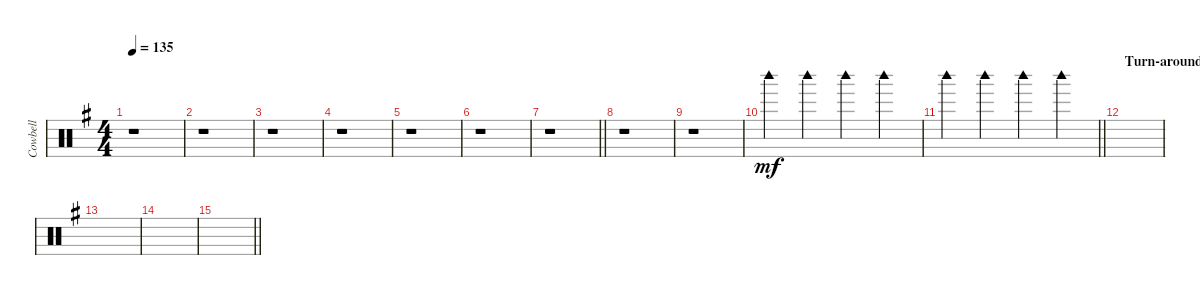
\track ("Cowbell" "Cowbell") {instrument percussion}
\staff {score}
\articulation defaults
\ts (4 4)
\tempo 135
\clef neutral
\ks g
r.1{dy mf} |
r.1 |
r.1 |
r.1 |
r.1 |
r.1 |
\barLineRight lightlight
r.1 |
r.1 |
r.1 |
"Woodblock high (hit)".4 "Woodblock high (hit)".4 "Woodblock high (hit)".4 "Woodblock high (hit)".4 |
\barLineRight lightlight "Woodblock high (hit)".4 "Woodblock high (hit)".4 "Woodblock high (hit)".4 "Woodblock high (hit)".4
|
\section ("" "Turn-around")
|
|
|
\barLineRight lightlight
